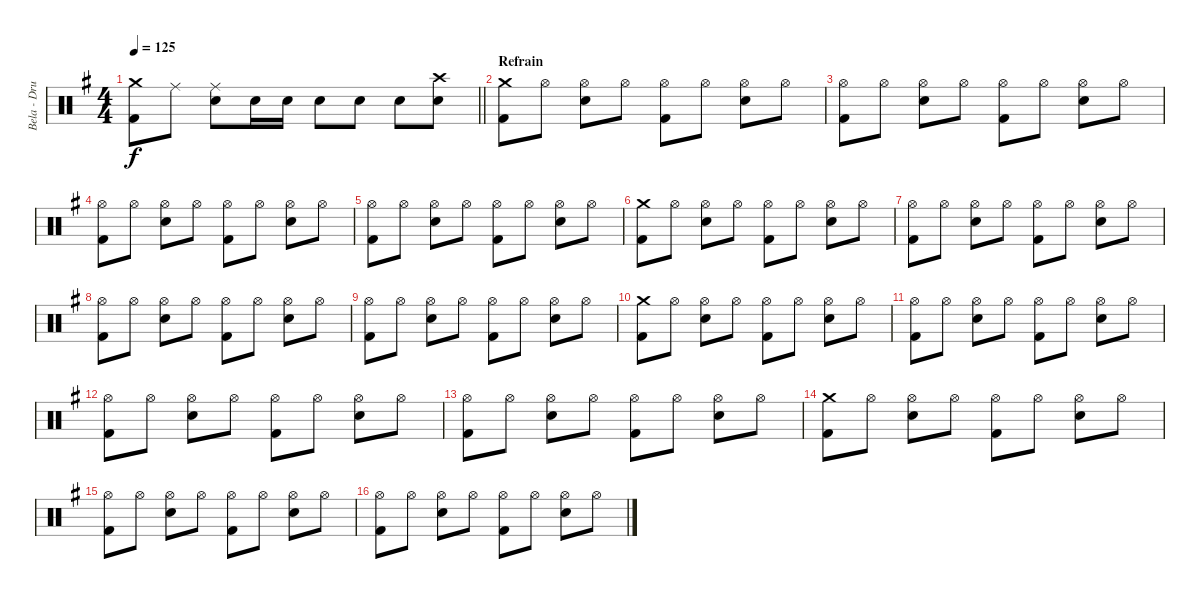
\track ("Bela - Drums" "Bela - Dru") {instrument percussion}
\staff {score}
\articulation defaults
\ts (4 4)
\tempo 125
\clef neutral
\barLineRight lightlight
\ks g
("Crash medium (hit)" "Kick (hit) 2").8{dy f} "Ride (middle)".8 ("Ride (middle)" "Snare (hit) 2").8 "Snare (hit) 2".16 "Snare (hit) 2".16 "Snare (hit) 2".8 "Snare (hit) 2".8 "Snare (hit) 2".8 ("Crash high (hit)" "Snare (hit) 2").8 |
\section ("" "Refrain")
("Crash medium (hit)" "Kick (hit) 2").8 "Hi-Hat (open)".8 ("Hi-Hat (open)" "Snare (hit) 2").8 "Hi-Hat (open)".8 ("Hi-Hat (open)" "Kick (hit) 2").8 "Hi-Hat (open)".8 ("Hi-Hat (open)" "Snare (hit) 2").8 "Hi-Hat (open)".8 |
("Hi-Hat (open)" "Kick (hit) 2").8 "Hi-Hat (open)".8 ("Hi-Hat (open)" "Snare (hit) 2").8 "Hi-Hat (open)".8 ("Hi-Hat (open)" "Kick (hit) 2").8 "Hi-Hat (open)".8 ("Hi-Hat (open)" "Snare (hit) 2").8 "Hi-Hat (open)".8 |
("Hi-Hat (open)" "Kick (hit) 2").8 "Hi-Hat (open)".8 ("Hi-Hat (open)" "Snare (hit) 2").8 "Hi-Hat (open)".8 ("Hi-Hat (open)" "Kick (hit) 2").8 "Hi-Hat (open)".8 ("Hi-Hat (open)" "Snare (hit) 2").8 "Hi-Hat (open)".8 |
("Hi-Hat (open)" "Kick (hit) 2").8 "Hi-Hat (open)".8 ("Hi-Hat (open)" "Snare (hit) 2").8 "Hi-Hat (open)".8 ("Hi-Hat (open)" "Kick (hit) 2").8 "Hi-Hat (open)".8 ("Hi-Hat (open)" "Snare (hit) 2").8 "Hi-Hat (open)".8 |
("Crash medium (hit)" "Kick (hit) 2").8 "Hi-Hat (open)".8 ("Hi-Hat (open)" "Snare (hit) 2").8 "Hi-Hat (open)".8 ("Hi-Hat (open)" "Kick (hit) 2").8 "Hi-Hat (open)".8 ("Hi-Hat (open)" "Snare (hit) 2").8 "Hi-Hat (open)".8 |
("Hi-Hat (open)" "Kick (hit) 2").8 "Hi-Hat (open)".8 ("Hi-Hat (open)" "Snare (hit) 2").8 "Hi-Hat (open)".8 ("Hi-Hat (open)" "Kick (hit) 2").8 "Hi-Hat (open)".8 ("Hi-Hat (open)" "Snare (hit) 2").8 "Hi-Hat (open)".8 |
("Hi-Hat (open)" "Kick (hit) 2").8 "Hi-Hat (open)".8 ("Hi-Hat (open)" "Snare (hit) 2").8 "Hi-Hat (open)".8 ("Hi-Hat (open)" "Kick (hit) 2").8 "Hi-Hat (open)".8 ("Hi-Hat (open)" "Snare (hit) 2").8 "Hi-Hat (open)".8 |
("Hi-Hat (open)" "Kick (hit) 2").8 "Hi-Hat (open)".8 ("Hi-Hat (open)" "Snare (hit) 2").8 "Hi-Hat (open)".8 ("Hi-Hat (open)" "Kick (hit) 2").8 "Hi-Hat (open)".8 ("Hi-Hat (open)" "Snare (hit) 2").8 "Hi-Hat (open)".8 |
("Crash medium (hit)" "Kick (hit) 2").8 "Hi-Hat (open)".8 ("Hi-Hat (open)" "Snare (hit) 2").8 "Hi-Hat (open)".8 ("Hi-Hat (open)" "Kick (hit) 2").8 "Hi-Hat (open)".8 ("Hi-Hat (open)" "Snare (hit) 2").8 "Hi-Hat (open)".8 |
("Hi-Hat (open)" "Kick (hit) 2").8 "Hi-Hat (open)".8 ("Hi-Hat (open)" "Snare (hit) 2").8 "Hi-Hat (open)".8 ("Hi-Hat (open)" "Kick (hit) 2").8 "Hi-Hat (open)".8 ("Hi-Hat (open)" "Snare (hit) 2").8 "Hi-Hat (open)".8 |
("Hi-Hat (open)" "Kick (hit) 2").8 "Hi-Hat (open)".8 ("Hi-Hat (open)" "Snare (hit) 2").8 "Hi-Hat (open)".8 ("Hi-Hat (open)" "Kick (hit) 2").8 "Hi-Hat (open)".8 ("Hi-Hat (open)" "Snare (hit) 2").8 "Hi-Hat (open)".8 |
("Hi-Hat (open)" "Kick (hit) 2").8 "Hi-Hat (open)".8 ("Hi-Hat (open)" "Snare (hit) 2").8 "Hi-Hat (open)".8 ("Hi-Hat (open)" "Kick (hit) 2").8 "Hi-Hat (open)".8 ("Hi-Hat (open)" "Snare (hit) 2").8 "Hi-Hat (open)".8 |
("Crash medium (hit)" "Kick (hit) 2").8 "Hi-Hat (open)".8 ("Hi-Hat (open)" "Snare (hit) 2").8 "Hi-Hat (open)".8 ("Hi-Hat (open)" "Kick (hit) 2").8 "Hi-Hat (open)".8 ("Hi-Hat (open)" "Snare (hit) 2").8 "Hi-Hat (open)".8 |
("Hi-Hat (open)" "Kick (hit) 2").8 "Hi-Hat (open)".8 ("Hi-Hat (open)" "Snare (hit) 2").8 "Hi-Hat (open)".8 ("Hi-Hat (open)" "Kick (hit) 2").8 "Hi-Hat (open)".8 ("Hi-Hat (open)" "Snare (hit) 2").8 "Hi-Hat (open)".8 |
("Hi-Hat (open)" "Kick (hit) 2").8 "Hi-Hat (open)".8 ("Hi-Hat (open)" "Snare (hit) 2").8 "Hi-Hat (open)".8 ("Hi-Hat (open)" "Kick (hit) 2").8 "Hi-Hat (open)".8 ("Hi-Hat (open)" "Snare (hit) 2").8 "Hi-Hat (open)".8
